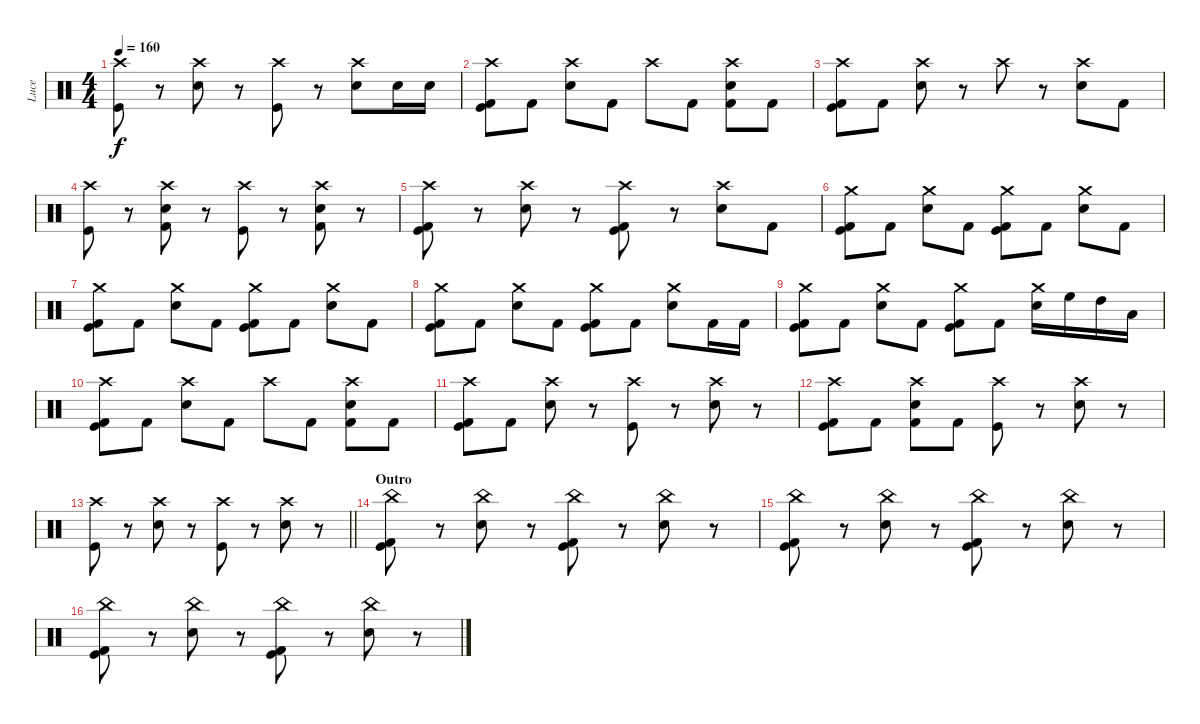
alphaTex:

\track ("Luce" "Luce") {instrument percussion}
\staff {score}
\articulation defaults
\ts (4 4)
\tempo 160
\clef neutral
\ks c
("Crash high (hit)" "Kick (hit)").8{dy f} r.8 ("Crash high (hit)" "Snare (hit) 2").8 r.8 ("Crash high (hit)" "Kick (hit)").8 r.8 ("Crash high (hit)" "Snare (hit) 2").8 "Snare (hit) 2".16 "Snare (hit) 2".16 |
("Crash high (hit)" "Kick (hit) 2" "Kick (hit)").8 "Kick (hit) 2".8 ("Crash high (hit)" "Snare (hit) 2").8 "Kick (hit) 2".8 "Crash high (hit)".8 "Kick (hit) 2".8 ("Crash high (hit)" "Kick (hit) 2" "Snare (hit) 2").8 "Kick (hit) 2".8 |
("Crash high (hit)" "Kick (hit) 2" "Kick (hit)").8 "Kick (hit) 2".8 ("Crash high (hit)" "Snare (hit) 2").8 r.8 "Crash high (hit)".8 r.8 ("Crash high (hit)" "Snare (hit) 2").8 "Kick (hit) 2".8 |
("Crash high (hit)" "Kick (hit)").8 r.8 ("Crash high (hit)" "Kick (hit) 2" "Snare (hit) 2").8 r.8 ("Crash high (hit)" "Kick (hit)").8 r.8 ("Crash high (hit)" "Kick (hit) 2" "Snare (hit) 2").8 r.8 |
("Crash high (hit)" "Kick (hit) 2" "Kick (hit)").8 r.8 ("Crash high (hit)" "Snare (hit) 2").8 r.8 ("Crash high (hit)" "Kick (hit) 2" "Kick (hit)").8 r.8 ("Crash high (hit)" "Snare (hit) 2").8 "Kick (hit) 2".8 |
("Crash medium (hit)" "Kick (hit) 2" "Kick (hit)").8 "Kick (hit) 2".8 ("Crash medium (hit)" "Snare (hit) 2").8 "Kick (hit) 2".8 ("Crash medium (hit)" "Kick (hit) 2" "Kick (hit)").8 "Kick (hit) 2".8 ("Crash medium (hit)" "Snare (hit) 2").8 "Kick (hit) 2".8 |
("Crash medium (hit)" "Kick (hit) 2" "Kick (hit)").8 "Kick (hit) 2".8 ("Crash medium (hit)" "Snare (hit) 2").8 "Kick (hit) 2".8 ("Crash medium (hit)" "Kick (hit) 2" "Kick (hit)").8 "Kick (hit) 2".8 ("Crash medium (hit)" "Snare (hit) 2").8 "Kick (hit) 2".8 |
("Crash medium (hit)" "Kick (hit) 2" "Kick (hit)").8 "Kick (hit) 2".8 ("Crash medium (hit)" "Snare (hit) 2").8 "Kick (hit) 2".8 ("Crash medium (hit)" "Kick (hit) 2" "Kick (hit)").8 "Kick (hit) 2".8 ("Crash medium (hit)" "Snare (hit) 2").8 "Kick (hit) 2".16 "Kick (hit) 2".16 |
("Crash medium (hit)" "Kick (hit) 2" "Kick (hit)").8 "Kick (hit) 2".8 ("Crash medium (hit)" "Snare (hit) 2").8 "Kick (hit) 2".8 ("Crash medium (hit)" "Kick (hit) 2" "Kick (hit)").8 "Kick (hit) 2".8 ("Crash medium (hit)" "Snare (hit) 2").16 "High Floor Tom (hit)".16 "High Tom (hit)".16 "Low Tom (hit)".16 |
("Crash high (hit)" "Kick (hit) 2" "Kick (hit)").8 "Kick (hit) 2".8 ("Crash high (hit)" "Snare (hit) 2").8 "Kick (hit) 2".8 "Crash high (hit)".8 "Kick (hit) 2".8 ("Crash high (hit)" "Kick (hit) 2" "Snare (hit) 2").8 "Kick (hit) 2".8 |
("Crash high (hit)" "Kick (hit) 2" "Kick (hit)").8 "Kick (hit) 2".8 ("Crash high (hit)" "Snare (hit) 2").8 r.8 ("Crash high (hit)" "Kick (hit)").8 r.8 ("Crash high (hit)" "Snare (hit) 2").8 r.8 |
("Crash high (hit)" "Kick (hit) 2" "Kick (hit)").8 "Kick (hit) 2".8 ("Crash high (hit)" "Kick (hit) 2" "Snare (hit) 2").8 "Kick (hit) 2".8 ("Crash high (hit)" "Kick (hit)").8 r.8 ("Crash high (hit)" "Snare (hit) 2").8 r.8 |
\barLineRight lightlight
("Crash high (hit)" "Kick (hit)").8 r.8 ("Crash high (hit)" "Snare (hit) 2").8 r.8 ("Crash high (hit)" "Kick (hit)").8 r.8 ("Crash high (hit)" "Snare (hit) 2").8 r.8 |
\section ("" "Outro")
("China (hit)" "Kick (hit) 2" "Kick (hit)").8 r.8 ("China (hit)" "Snare (hit) 2").8 r.8 ("China (hit)" "Kick (hit) 2" "Kick (hit)").8 r.8 ("China (hit)" "Snare (hit) 2").8 r.8 |
("China (hit)" "Kick (hit) 2" "Kick (hit)").8 r.8 ("China (hit)" "Snare (hit) 2").8 r.8 ("China (hit)" "Kick (hit) 2" "Kick (hit)").8 r.8 ("China (hit)" "Snare (hit) 2").8 r.8 |
("China (hit)" "Kick (hit) 2" "Kick (hit)").8 r.8 ("China (hit)" "Snare (hit) 2").8 r.8 ("China (hit)" "Kick (hit) 2" "Kick (hit)").8 r.8 ("China (hit)" "Snare (hit) 2").8 r.8
